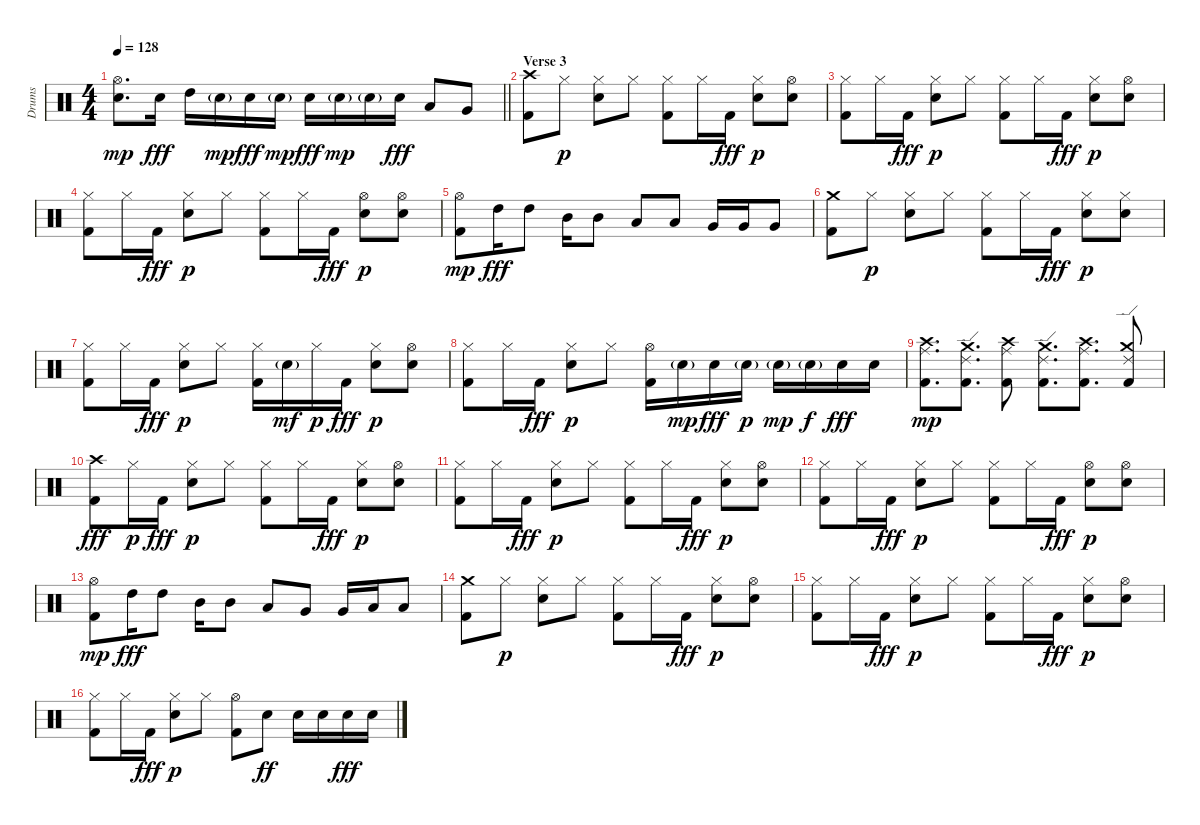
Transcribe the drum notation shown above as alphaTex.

\track ("Drums" "Drums") {instrument percussion}
\staff {score}
\articulation defaults
\ts (4 4)
\tempo 128
\clef neutral
\barLineRight lightlight
\ks c
("Electric Snare (hit)" "Hi-Hat (open)").8{d dy mp} "Electric Snare (hit)".16{dy fff} "High Tom (hit)".16 "Electric Snare (hit)"{g}.16{dy mp} "Electric Snare (hit)".16{dy fff} "Electric Snare (hit)"{g}.16{dy mp} "Electric Snare (hit)".16{dy fff} "Electric Snare (hit)"{g}.16{dy mp} "Electric Snare (hit)"{g}.16 "Electric Snare (hit)".16{dy fff} "Low Tom (hit)".8 "Very Low Tom (hit)".8 |
\section ("" "Verse 3")
("Kick (hit) 2" "Crash high (hit)").8 "Hi-Hat (closed)".8{dy p} ("Electric Snare (hit)" "Hi-Hat (closed)").8 "Hi-Hat (closed)".8 ("Kick (hit) 2" "Hi-Hat (closed)").8 "Hi-Hat (closed)".16 "Kick (hit) 2".16{dy fff} ("Electric Snare (hit)" "Hi-Hat (closed)").8{dy p} ("Electric Snare (hit)" "Hi-Hat (open)").8 |
("Kick (hit) 2" "Hi-Hat (closed)").8 "Hi-Hat (closed)".16 "Kick (hit) 2".16{dy fff} ("Electric Snare (hit)" "Hi-Hat (closed)").8{dy p} "Hi-Hat (closed)".8 ("Kick (hit) 2" "Hi-Hat (closed)").8 "Hi-Hat (closed)".16 "Kick (hit) 2".16{dy fff} ("Electric Snare (hit)" "Hi-Hat (closed)").8{dy p} ("Electric Snare (hit)" "Hi-Hat (open)").8 |
("Kick (hit) 2" "Hi-Hat (closed)").8 "Hi-Hat (closed)".16 "Kick (hit) 2".16{dy fff} ("Electric Snare (hit)" "Hi-Hat (closed)").8{dy p} "Hi-Hat (closed)".8 ("Kick (hit) 2" "Hi-Hat (closed)").8 "Hi-Hat (closed)".16 "Kick (hit) 2".16{dy fff} ("Electric Snare (hit)" "Hi-Hat (open)").8{dy p} ("Electric Snare (hit)" "Hi-Hat (open)").8 |
("Kick (hit) 2" "Hi-Hat (open)").8{dy mp} "High Tom (hit)".16{dy fff} "High Tom (hit)".8 "Mid Tom (hit)".16 "Mid Tom (hit)".8 "Low Tom (hit)".8 "Low Tom (hit)".8 "Very Low Tom (hit)".16 "Very Low Tom (hit)".16 "Very Low Tom (hit)".8 |
("Kick (hit) 2" "Crash medium (hit)").8 "Hi-Hat (closed)".8{dy p} ("Electric Snare (hit)" "Hi-Hat (closed)").8 "Hi-Hat (closed)".8 ("Kick (hit) 2" "Hi-Hat (closed)").8 "Hi-Hat (closed)".16 "Kick (hit) 2".16{dy fff} ("Electric Snare (hit)" "Hi-Hat (closed)").8{dy p} ("Electric Snare (hit)" "Hi-Hat (closed)").8 |
("Kick (hit) 2" "Hi-Hat (closed)").8 "Hi-Hat (closed)".16 "Kick (hit) 2".16{dy fff} ("Electric Snare (hit)" "Hi-Hat (closed)").8{dy p} "Hi-Hat (closed)".8 ("Kick (hit) 2" "Hi-Hat (closed)").16 "Electric Snare (hit)"{g}.16{dy mf} "Hi-Hat (closed)".16{dy p} "Kick (hit) 2".16{dy fff} ("Electric Snare (hit)" "Hi-Hat (closed)").8{dy p} ("Electric Snare (hit)" "Hi-Hat (open)").8 |
("Kick (hit) 2" "Hi-Hat (closed)").8 "Hi-Hat (closed)".16 "Kick (hit) 2".16{dy fff} ("Electric Snare (hit)" "Hi-Hat (closed)").8{dy p} "Hi-Hat (closed)".8 ("Kick (hit) 2" "Hi-Hat (open)").16 "Electric Snare (hit)"{g}.16{dy mp} "Electric Snare (hit)".16{dy fff} "Electric Snare (hit)"{g}.16{dy p} "Electric Snare (hit)"{g}.16{dy mp} "Electric Snare (hit)"{g}.16{dy f} "Electric Snare (hit)".16{dy fff} "Electric Snare (hit)".16 |
("Kick (hit) 2" "Ride (middle)" "Crash high (hit)").8{d dy mp} ("Kick (hit) 2" "Ride (edge) 2" "Crash medium (hit)").8{d} ("Kick (hit) 2" "Ride (middle)" "Crash high (hit)").8 ("Kick (hit) 2" "Ride (edge) 2" "Crash medium (hit)").8{d} ("Kick (hit) 2" "Ride (middle)" "Crash high (hit)").8{d} ("Kick (hit) 2" "Ride (edge) 2" "Crash medium (hit)").8 |
("Kick (hit) 2" "Crash high (hit)").8{dy fff} "Hi-Hat (closed)".16{dy p} "Kick (hit) 2".16{dy fff} ("Electric Snare (hit)" "Hi-Hat (closed)").8{dy p} "Hi-Hat (closed)".8 ("Kick (hit) 2" "Hi-Hat (closed)").8 "Hi-Hat (closed)".16 "Kick (hit) 2".16{dy fff} ("Electric Snare (hit)" "Hi-Hat (closed)").8{dy p} ("Electric Snare (hit)" "Hi-Hat (open)").8 |
("Kick (hit) 2" "Hi-Hat (closed)").8 "Hi-Hat (closed)".16 "Kick (hit) 2".16{dy fff} ("Electric Snare (hit)" "Hi-Hat (closed)").8{dy p} "Hi-Hat (closed)".8 ("Kick (hit) 2" "Hi-Hat (closed)").8 "Hi-Hat (closed)".16 "Kick (hit) 2".16{dy fff} ("Electric Snare (hit)" "Hi-Hat (closed)").8{dy p} ("Electric Snare (hit)" "Hi-Hat (open)").8 |
("Kick (hit) 2" "Hi-Hat (closed)").8 "Hi-Hat (closed)".16 "Kick (hit) 2".16{dy fff} ("Electric Snare (hit)" "Hi-Hat (closed)").8{dy p} "Hi-Hat (closed)".8 ("Kick (hit) 2" "Hi-Hat (closed)").8 "Hi-Hat (closed)".16 "Kick (hit) 2".16{dy fff} ("Electric Snare (hit)" "Hi-Hat (open)").8{dy p} ("Electric Snare (hit)" "Hi-Hat (open)").8 |
("Kick (hit) 2" "Hi-Hat (open)").8{dy mp} "High Tom (hit)".16{dy fff} "High Tom (hit)".8 "Mid Tom (hit)".16 "Mid Tom (hit)".8 "Low Tom (hit)".8 "Very Low Tom (hit)".8 "Very Low Tom (hit)".16 "Low Floor Tom (hit)".16 "Low Floor Tom (hit)".8 |
("Kick (hit) 2" "Crash medium (hit)").8 "Hi-Hat (closed)".8{dy p} ("Electric Snare (hit)" "Hi-Hat (closed)").8 "Hi-Hat (closed)".8 ("Kick (hit) 2" "Hi-Hat (closed)").8 "Hi-Hat (closed)".16 "Kick (hit) 2".16{dy fff} ("Electric Snare (hit)" "Hi-Hat (closed)").8{dy p} ("Electric Snare (hit)" "Hi-Hat (open)").8 |
("Kick (hit) 2" "Hi-Hat (closed)").8 "Hi-Hat (closed)".16 "Kick (hit) 2".16{dy fff} ("Electric Snare (hit)" "Hi-Hat (closed)").8{dy p} "Hi-Hat (closed)".8 ("Kick (hit) 2" "Hi-Hat (closed)").8 "Hi-Hat (closed)".16 "Kick (hit) 2".16{dy fff} ("Electric Snare (hit)" "Hi-Hat (closed)").8{dy p} ("Electric Snare (hit)" "Hi-Hat (open)").8 |
("Kick (hit) 2" "Hi-Hat (closed)").8 "Hi-Hat (closed)".16 "Kick (hit) 2".16{dy fff} ("Electric Snare (hit)" "Hi-Hat (closed)").8{dy p} "Hi-Hat (closed)".8 ("Kick (hit) 2" "Hi-Hat (open)").8 "Electric Snare (hit)".8{dy ff} "Electric Snare (hit)".16 "Electric Snare (hit)".16 "Electric Snare (hit)".16{dy fff} "Electric Snare (hit)".16
